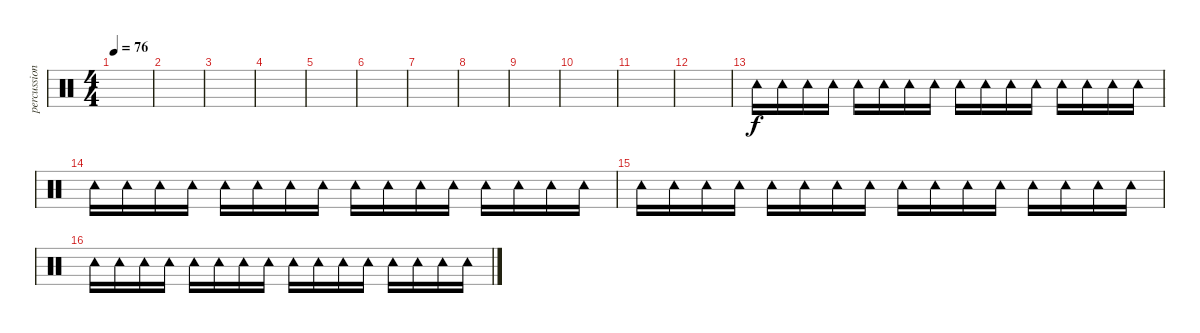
\track ("percussion" "percussion") {instrument percussion}
\staff {score}
\articulation defaults
\ts (4 4)
\tempo 76
\clef neutral
\ks c
|
|
|
|
|
|
|
|
|
|
|
|
"Tambourine (hit)".16 "Tambourine (hit)".16 "Tambourine (hit)".16 "Tambourine (hit)".16 "Tambourine (hit)".16 "Tambourine (hit)".16 "Tambourine (hit)".16 "Tambourine (hit)".16 "Tambourine (hit)".16 "Tambourine (hit)".16 "Tambourine (hit)".16 "Tambourine (hit)".16 "Tambourine (hit)".16 "Tambourine (hit)".16 "Tambourine (hit)".16 "Tambourine (hit)".16 |
"Tambourine (hit)".16 "Tambourine (hit)".16 "Tambourine (hit)".16 "Tambourine (hit)".16 "Tambourine (hit)".16 "Tambourine (hit)".16 "Tambourine (hit)".16 "Tambourine (hit)".16 "Tambourine (hit)".16 "Tambourine (hit)".16 "Tambourine (hit)".16 "Tambourine (hit)".16 "Tambourine (hit)".16 "Tambourine (hit)".16 "Tambourine (hit)".16 "Tambourine (hit)".16 |
"Tambourine (hit)".16 "Tambourine (hit)".16 "Tambourine (hit)".16 "Tambourine (hit)".16 "Tambourine (hit)".16 "Tambourine (hit)".16 "Tambourine (hit)".16 "Tambourine (hit)".16 "Tambourine (hit)".16 "Tambourine (hit)".16 "Tambourine (hit)".16 "Tambourine (hit)".16 "Tambourine (hit)".16 "Tambourine (hit)".16 "Tambourine (hit)".16 "Tambourine (hit)".16 |
"Tambourine (hit)".16 "Tambourine (hit)".16 "Tambourine (hit)".16 "Tambourine (hit)".16 "Tambourine (hit)".16 "Tambourine (hit)".16 "Tambourine (hit)".16 "Tambourine (hit)".16 "Tambourine (hit)".16 "Tambourine (hit)".16 "Tambourine (hit)".16 "Tambourine (hit)".16 "Tambourine (hit)".16 "Tambourine (hit)".16 "Tambourine (hit)".16 "Tambourine (hit)".16
